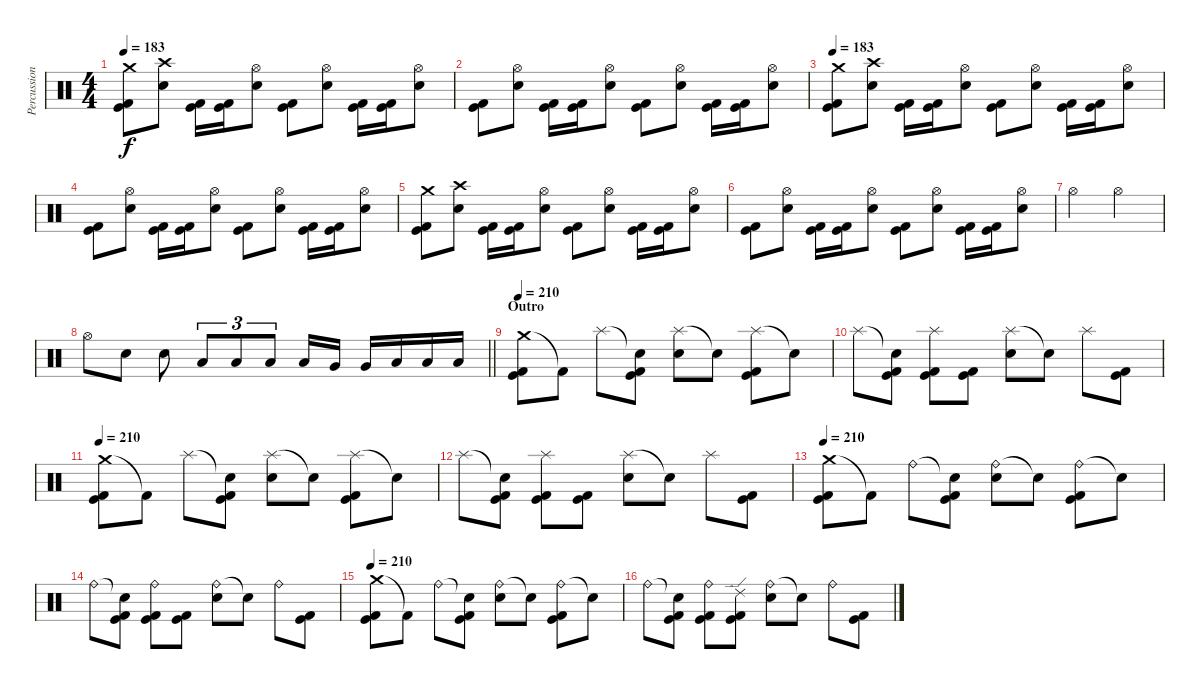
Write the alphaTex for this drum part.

\track ("Percussion" "Percussion") {instrument percussion}
\staff {score}
\articulation defaults
\ts (4 4)
\tempo 183
\clef neutral
\ks c
("Crash medium (hit)" "Kick (hit)" "Kick (hit) 2").8{dy f} ("Crash high (hit)" "Electric Snare (hit)").8 ("Kick (hit)" "Kick (hit) 2").16 ("Kick (hit)" "Kick (hit) 2").16 ("Hi-Hat (open)" "Electric Snare (hit)").8 ("Kick (hit)" "Kick (hit) 2").8 ("Hi-Hat (open)" "Electric Snare (hit)").8 ("Kick (hit)" "Kick (hit) 2").16 ("Kick (hit)" "Kick (hit) 2").16 ("Hi-Hat (open)" "Electric Snare (hit)").8 |
("Kick (hit)" "Kick (hit) 2").8 ("Hi-Hat (open)" "Electric Snare (hit)").8 ("Kick (hit)" "Kick (hit) 2").16 ("Kick (hit)" "Kick (hit) 2").16 ("Hi-Hat (open)" "Electric Snare (hit)").8 ("Kick (hit)" "Kick (hit) 2").8 ("Hi-Hat (open)" "Electric Snare (hit)").8 ("Kick (hit)" "Kick (hit) 2").16 ("Kick (hit)" "Kick (hit) 2").16 ("Hi-Hat (open)" "Electric Snare (hit)").8 |
\tempo 183
("Crash medium (hit)" "Kick (hit)" "Kick (hit) 2").8 ("Crash high (hit)" "Electric Snare (hit)").8 ("Kick (hit)" "Kick (hit) 2").16 ("Kick (hit)" "Kick (hit) 2").16 ("Hi-Hat (open)" "Electric Snare (hit)").8 ("Kick (hit)" "Kick (hit) 2").8 ("Hi-Hat (open)" "Electric Snare (hit)").8 ("Kick (hit)" "Kick (hit) 2").16 ("Kick (hit)" "Kick (hit) 2").16 ("Hi-Hat (open)" "Electric Snare (hit)").8 |
("Kick (hit)" "Kick (hit) 2").8 ("Hi-Hat (open)" "Electric Snare (hit)").8 ("Kick (hit)" "Kick (hit) 2").16 ("Kick (hit)" "Kick (hit) 2").16 ("Hi-Hat (open)" "Electric Snare (hit)").8 ("Kick (hit)" "Kick (hit) 2").8 ("Hi-Hat (open)" "Electric Snare (hit)").8 ("Kick (hit)" "Kick (hit) 2").16 ("Kick (hit)" "Kick (hit) 2").16 ("Hi-Hat (open)" "Electric Snare (hit)").8 |
("Crash medium (hit)" "Kick (hit)" "Kick (hit) 2").8 ("Crash high (hit)" "Electric Snare (hit)").8 ("Kick (hit)" "Kick (hit) 2").16 ("Kick (hit)" "Kick (hit) 2").16 ("Hi-Hat (open)" "Electric Snare (hit)").8 ("Kick (hit)" "Kick (hit) 2").8 ("Hi-Hat (open)" "Electric Snare (hit)").8 ("Kick (hit)" "Kick (hit) 2").16 ("Kick (hit)" "Kick (hit) 2").16 ("Hi-Hat (open)" "Electric Snare (hit)").8 |
("Kick (hit)" "Kick (hit) 2").8 ("Hi-Hat (open)" "Electric Snare (hit)").8 ("Kick (hit)" "Kick (hit) 2").16 ("Kick (hit)" "Kick (hit) 2").16 ("Hi-Hat (open)" "Electric Snare (hit)").8 ("Kick (hit)" "Kick (hit) 2").8 ("Hi-Hat (open)" "Electric Snare (hit)").8 ("Kick (hit)" "Kick (hit) 2").16 ("Kick (hit)" "Kick (hit) 2").16 ("Hi-Hat (open)" "Electric Snare (hit)").8 |
"Hi-Hat (open)".2 "Hi-Hat (open)".2 |
\barLineRight lightlight "Hi-Hat (open)".8 "Electric Snare (hit)".8 "Electric Snare (hit)".8 "Low Tom (hit)".8{tu (3 2)} "Low Tom (hit)".8{tu (3 2)} "Low Tom (hit)".8{tu (3 2)} "Low Tom (hit)".16 "Very Low Tom (hit)".16 "Very Low Tom (hit)".16 "Low Floor Tom (hit)".16 "Low Floor Tom (hit)".16 "Low Floor Tom (hit)".16
|
\section ("" "Outro")
\tempo 210
("Crash medium (hit)" "Kick (hit)" "Kick (hit) 2").8 "Kick (hit) 2"{t}.8 "Splash (hit)".8 ("Snare (hit)"{t} "Kick (hit)" "Kick (hit) 2").8 ("Splash (hit)" "Electric Snare (hit)").8 "Snare (hit)"{t}.8 ("Splash (hit)" "Kick (hit)" "Kick (hit) 2").8 "Snare (hit)"{t}.8 |
"Splash (hit)".8 ("Snare (hit)"{t} "Kick (hit)" "Kick (hit) 2").8 ("Splash (hit)" "Kick (hit)" "Kick (hit) 2").8 ("Kick (hit)" "Kick (hit) 2").8 ("Splash (hit)" "Electric Snare (hit)").8 "Snare (hit)"{t}.8 "Splash (hit)".8 ("Kick (hit)" "Kick (hit) 2").8 |
\tempo 210
("Crash medium (hit)" "Kick (hit)" "Kick (hit) 2").8 "Kick (hit) 2"{t}.8 "Splash (hit)".8 ("Snare (hit)"{t} "Kick (hit)" "Kick (hit) 2").8 ("Splash (hit)" "Electric Snare (hit)").8 "Snare (hit)"{t}.8 ("Splash (hit)" "Kick (hit)" "Kick (hit) 2").8 "Snare (hit)"{t}.8 |
"Splash (hit)".8 ("Snare (hit)"{t} "Kick (hit)" "Kick (hit) 2").8 ("Splash (hit)" "Kick (hit)" "Kick (hit) 2").8 ("Kick (hit)" "Kick (hit) 2").8 ("Splash (hit)" "Electric Snare (hit)").8 "Snare (hit)"{t}.8 "Splash (hit)".8 ("Kick (hit)" "Kick (hit) 2").8 |
\tempo 210
("Crash medium (hit)" "Kick (hit)" "Kick (hit) 2").8 "Kick (hit) 2"{t}.8 "Ride (bell)".8 ("Snare (hit)"{t} "Kick (hit)" "Kick (hit) 2").8 ("Ride (bell)" "Electric Snare (hit)").8 "Snare (hit)"{t}.8 ("Ride (bell)" "Kick (hit)" "Kick (hit) 2").8 "Snare (hit)"{t}.8 |
"Ride (bell)".8 ("Snare (hit)"{t} "Kick (hit)" "Kick (hit) 2").8 ("Ride (bell)" "Kick (hit)" "Kick (hit) 2").8 ("Kick (hit)" "Kick (hit) 2").8 ("Ride (bell)" "Electric Snare (hit)").8 "Snare (hit)"{t}.8 "Ride (bell)".8 ("Kick (hit)" "Kick (hit) 2").8 |
\tempo 210
("Crash medium (hit)" "Kick (hit)" "Kick (hit) 2").8 "Kick (hit) 2"{t}.8 "Ride (bell)".8 ("Snare (hit)"{t} "Kick (hit)" "Kick (hit) 2").8 ("Ride (bell)" "Electric Snare (hit)").8 "Snare (hit)"{t}.8 ("Ride (bell)" "Kick (hit)" "Kick (hit) 2").8 "Snare (hit)"{t}.8 |
"Ride (bell)".8 ("Snare (hit)"{t} "Kick (hit)" "Kick (hit) 2").8 ("Ride (bell)" "Kick (hit)" "Kick (hit) 2").8 ("Ride (edge) 2" "Kick (hit)" "Kick (hit) 2").8 ("Ride (bell)" "Electric Snare (hit)").8 "Snare (hit)"{t}.8 "Ride (bell)".8 ("Kick (hit)" "Kick (hit) 2").8
